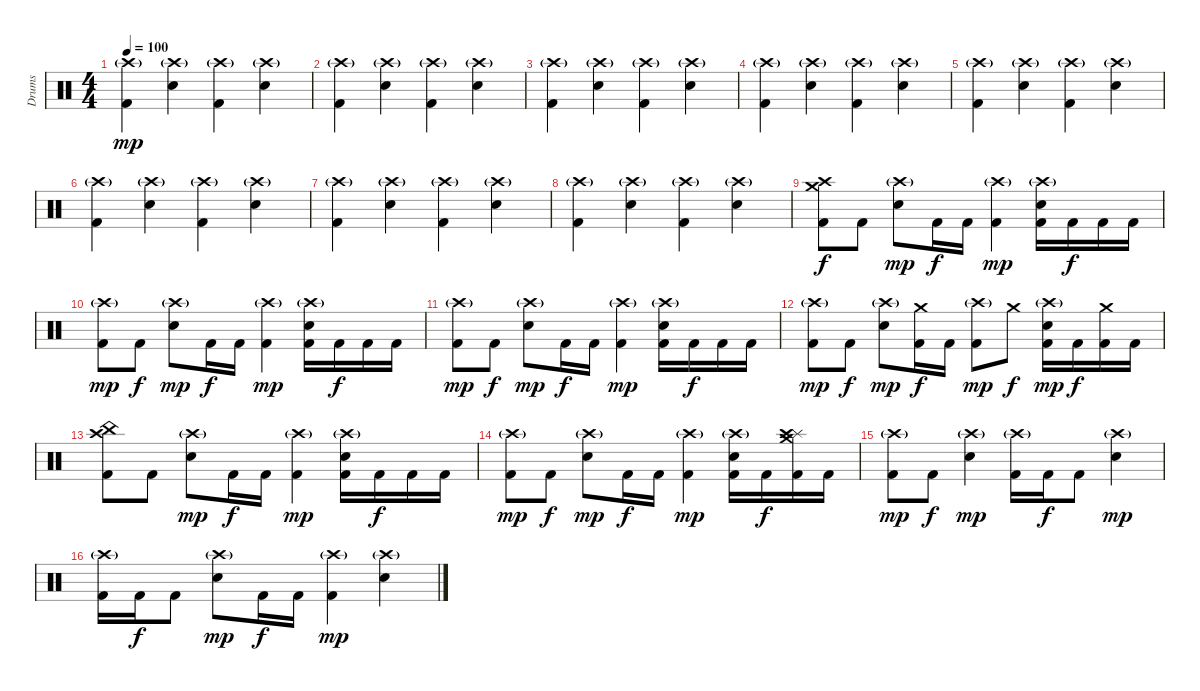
\track ("Drums" "Drums") {instrument percussion}
\staff {score}
\articulation defaults
\ts (4 4)
\tempo 100
\clef neutral
\ks c
("Crash high (hit)"{g} "Kick (hit) 2").4{dy mp} ("Crash high (hit)"{g} "Electric Snare (hit)").4 ("Crash high (hit)"{g} "Kick (hit) 2").4 ("Crash high (hit)"{g} "Electric Snare (hit)").4 |
("Crash high (hit)"{g} "Kick (hit) 2").4 ("Crash high (hit)"{g} "Electric Snare (hit)").4 ("Crash high (hit)"{g} "Kick (hit) 2").4 ("Crash high (hit)"{g} "Electric Snare (hit)").4 |
("Crash high (hit)"{g} "Kick (hit) 2").4 ("Crash high (hit)"{g} "Electric Snare (hit)").4 ("Crash high (hit)"{g} "Kick (hit) 2").4 ("Crash high (hit)"{g} "Electric Snare (hit)").4 |
("Crash high (hit)"{g} "Kick (hit) 2").4 ("Crash high (hit)"{g} "Electric Snare (hit)").4 ("Crash high (hit)"{g} "Kick (hit) 2").4 ("Crash high (hit)"{g} "Electric Snare (hit)").4 |
("Crash high (hit)"{g} "Kick (hit) 2").4 ("Crash high (hit)"{g} "Electric Snare (hit)").4 ("Crash high (hit)"{g} "Kick (hit) 2").4 ("Crash high (hit)"{g} "Electric Snare (hit)").4 |
("Crash high (hit)"{g} "Kick (hit) 2").4 ("Crash high (hit)"{g} "Electric Snare (hit)").4 ("Crash high (hit)"{g} "Kick (hit) 2").4 ("Crash high (hit)"{g} "Electric Snare (hit)").4 |
("Crash high (hit)"{g} "Kick (hit) 2").4 ("Crash high (hit)"{g} "Electric Snare (hit)").4 ("Crash high (hit)"{g} "Kick (hit) 2").4 ("Crash high (hit)"{g} "Electric Snare (hit)").4 |
("Crash high (hit)"{g} "Kick (hit) 2").4 ("Crash high (hit)"{g} "Electric Snare (hit)").4 ("Crash high (hit)"{g} "Kick (hit) 2").4 ("Crash high (hit)"{g} "Electric Snare (hit)").4 |
("Crash high (hit)" "Crash medium (hit)" "Kick (hit) 2").8{dy f} "Kick (hit) 2".8 ("Crash high (hit)"{g} "Electric Snare (hit)").8{dy mp} "Kick (hit) 2".16{dy f} "Kick (hit) 2".16 ("Crash high (hit)"{g} "Kick (hit) 2").4{dy mp} ("Crash high (hit)"{g} "Electric Snare (hit)" "Kick (hit) 2").16 "Kick (hit) 2".16{dy f} "Kick (hit) 2".16 "Kick (hit) 2".16 |
("Crash high (hit)"{g} "Kick (hit) 2").8{dy mp} "Kick (hit) 2".8{dy f} ("Crash high (hit)"{g} "Electric Snare (hit)").8{dy mp} "Kick (hit) 2".16{dy f} "Kick (hit) 2".16 ("Crash high (hit)"{g} "Kick (hit) 2").4{dy mp} ("Crash high (hit)"{g} "Electric Snare (hit)" "Kick (hit) 2").16 "Kick (hit) 2".16{dy f} "Kick (hit) 2".16 "Kick (hit) 2".16 |
("Crash high (hit)"{g} "Kick (hit) 2").8{dy mp} "Kick (hit) 2".8{dy f} ("Crash high (hit)"{g} "Electric Snare (hit)").8{dy mp} "Kick (hit) 2".16{dy f} "Kick (hit) 2".16 ("Crash high (hit)"{g} "Kick (hit) 2").4{dy mp} ("Crash high (hit)"{g} "Electric Snare (hit)" "Kick (hit) 2").16 "Kick (hit) 2".16{dy f} "Kick (hit) 2".16 "Kick (hit) 2".16 |
("Crash high (hit)"{g} "Kick (hit) 2").8{dy mp} "Kick (hit) 2".8{dy f} ("Crash high (hit)"{g} "Electric Snare (hit)").8{dy mp} ("Crash medium (hit)" "Kick (hit) 2").16{dy f} "Kick (hit) 2".16 ("Crash high (hit)"{g} "Kick (hit) 2").8{dy mp} "Crash medium (hit)".8{dy f} ("Crash high (hit)"{g} "Electric Snare (hit)" "Kick (hit) 2").16{dy mp} "Kick (hit) 2".16{dy f} ("Crash medium (hit)" "Kick (hit) 2").16 "Kick (hit) 2".16 |
("Crash high (hit)" "China (hit)" "Kick (hit) 2").8 "Kick (hit) 2".8 ("Crash high (hit)"{g} "Electric Snare (hit)").8{dy mp} "Kick (hit) 2".16{dy f} "Kick (hit) 2".16 ("Crash high (hit)"{g} "Kick (hit) 2").4{dy mp} ("Crash high (hit)"{g} "Electric Snare (hit)" "Kick (hit) 2").16 "Kick (hit) 2".16{dy f} "Kick (hit) 2".16 "Kick (hit) 2".16 |
("Crash high (hit)"{g} "Kick (hit) 2").8{dy mp} "Kick (hit) 2".8{dy f} ("Crash high (hit)"{g} "Electric Snare (hit)").8{dy mp} "Kick (hit) 2".16{dy f} "Kick (hit) 2".16 ("Crash high (hit)"{g} "Kick (hit) 2").4{dy mp} ("Crash high (hit)"{g} "Electric Snare (hit)" "Kick (hit) 2").16 "Kick (hit) 2".16{dy f} ("Crash medium (hit)" "Splash (hit)" "Crash high (hit)" "Kick (hit) 2").16 "Kick (hit) 2".16 |
("Crash high (hit)"{g} "Kick (hit) 2").8{dy mp} "Kick (hit) 2".8{dy f} ("Crash high (hit)"{g} "Electric Snare (hit)").4{dy mp} ("Crash high (hit)"{g} "Kick (hit) 2").16 "Kick (hit) 2".16{dy f} "Kick (hit) 2".8 ("Crash high (hit)"{g} "Electric Snare (hit)").4{dy mp} |
("Crash high (hit)"{g} "Kick (hit) 2").16 "Kick (hit) 2".16{dy f} "Kick (hit) 2".8 ("Crash high (hit)"{g} "Electric Snare (hit)").8{dy mp} "Kick (hit) 2".16{dy f} "Kick (hit) 2".16 ("Crash high (hit)"{g} "Kick (hit) 2").4{dy mp} ("Crash high (hit)"{g} "Electric Snare (hit)").4
